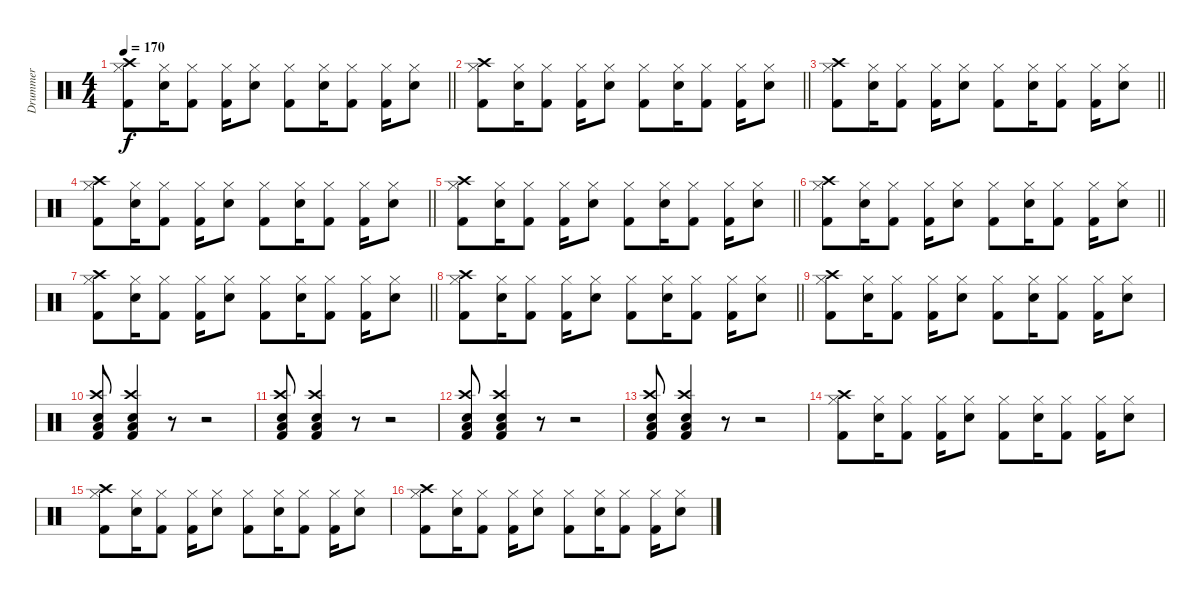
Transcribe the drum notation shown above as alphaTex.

\track ("Drummer" "Drummer") {instrument percussion}
\staff {score}
\articulation defaults
\ts (4 4)
\tempo 170
\clef neutral
\barLineRight lightlight
\ks c
("Kick (hit) 2" "Hi-Hat (closed)" "Crash high (hit)").8{dy f} ("Electric Snare (hit)" "Hi-Hat (closed)").16 ("Kick (hit) 2" "Hi-Hat (closed)").8 ("Kick (hit) 2" "Hi-Hat (closed)").16 ("Electric Snare (hit)" "Hi-Hat (closed)").8 ("Kick (hit) 2" "Hi-Hat (closed)").8 ("Electric Snare (hit)" "Hi-Hat (closed)").16 ("Kick (hit) 2" "Hi-Hat (closed)").8 ("Kick (hit) 2" "Hi-Hat (closed)").16 ("Electric Snare (hit)" "Hi-Hat (closed)").8 |
\barLineRight lightlight
("Kick (hit) 2" "Hi-Hat (closed)" "Crash high (hit)").8 ("Electric Snare (hit)" "Hi-Hat (closed)").16 ("Kick (hit) 2" "Hi-Hat (closed)").8 ("Kick (hit) 2" "Hi-Hat (closed)").16 ("Electric Snare (hit)" "Hi-Hat (closed)").8 ("Kick (hit) 2" "Hi-Hat (closed)").8 ("Electric Snare (hit)" "Hi-Hat (closed)").16 ("Kick (hit) 2" "Hi-Hat (closed)").8 ("Kick (hit) 2" "Hi-Hat (closed)").16 ("Electric Snare (hit)" "Hi-Hat (closed)").8 |
\barLineRight lightlight
("Kick (hit) 2" "Hi-Hat (closed)" "Crash high (hit)").8 ("Electric Snare (hit)" "Hi-Hat (closed)").16 ("Kick (hit) 2" "Hi-Hat (closed)").8 ("Kick (hit) 2" "Hi-Hat (closed)").16 ("Electric Snare (hit)" "Hi-Hat (closed)").8 ("Kick (hit) 2" "Hi-Hat (closed)").8 ("Electric Snare (hit)" "Hi-Hat (closed)").16 ("Kick (hit) 2" "Hi-Hat (closed)").8 ("Kick (hit) 2" "Hi-Hat (closed)").16 ("Electric Snare (hit)" "Hi-Hat (closed)").8 |
\barLineRight lightlight
("Kick (hit) 2" "Hi-Hat (closed)" "Crash high (hit)").8 ("Electric Snare (hit)" "Hi-Hat (closed)").16 ("Kick (hit) 2" "Hi-Hat (closed)").8 ("Kick (hit) 2" "Hi-Hat (closed)").16 ("Electric Snare (hit)" "Hi-Hat (closed)").8 ("Kick (hit) 2" "Hi-Hat (closed)").8 ("Electric Snare (hit)" "Hi-Hat (closed)").16 ("Kick (hit) 2" "Hi-Hat (closed)").8 ("Kick (hit) 2" "Hi-Hat (closed)").16 ("Electric Snare (hit)" "Hi-Hat (closed)").8 |
\barLineRight lightlight
("Kick (hit) 2" "Hi-Hat (closed)" "Crash high (hit)").8 ("Electric Snare (hit)" "Hi-Hat (closed)").16 ("Kick (hit) 2" "Hi-Hat (closed)").8 ("Kick (hit) 2" "Hi-Hat (closed)").16 ("Electric Snare (hit)" "Hi-Hat (closed)").8 ("Kick (hit) 2" "Hi-Hat (closed)").8 ("Electric Snare (hit)" "Hi-Hat (closed)").16 ("Kick (hit) 2" "Hi-Hat (closed)").8 ("Kick (hit) 2" "Hi-Hat (closed)").16 ("Electric Snare (hit)" "Hi-Hat (closed)").8 |
\barLineRight lightlight
("Kick (hit) 2" "Hi-Hat (closed)" "Crash high (hit)").8 ("Electric Snare (hit)" "Hi-Hat (closed)").16 ("Kick (hit) 2" "Hi-Hat (closed)").8 ("Kick (hit) 2" "Hi-Hat (closed)").16 ("Electric Snare (hit)" "Hi-Hat (closed)").8 ("Kick (hit) 2" "Hi-Hat (closed)").8 ("Electric Snare (hit)" "Hi-Hat (closed)").16 ("Kick (hit) 2" "Hi-Hat (closed)").8 ("Kick (hit) 2" "Hi-Hat (closed)").16 ("Electric Snare (hit)" "Hi-Hat (closed)").8 |
\barLineRight lightlight
("Kick (hit) 2" "Hi-Hat (closed)" "Crash high (hit)").8 ("Electric Snare (hit)" "Hi-Hat (closed)").16 ("Kick (hit) 2" "Hi-Hat (closed)").8 ("Kick (hit) 2" "Hi-Hat (closed)").16 ("Electric Snare (hit)" "Hi-Hat (closed)").8 ("Kick (hit) 2" "Hi-Hat (closed)").8 ("Electric Snare (hit)" "Hi-Hat (closed)").16 ("Kick (hit) 2" "Hi-Hat (closed)").8 ("Kick (hit) 2" "Hi-Hat (closed)").16 ("Electric Snare (hit)" "Hi-Hat (closed)").8 |
\barLineRight lightlight
("Kick (hit) 2" "Hi-Hat (closed)" "Crash high (hit)").8 ("Electric Snare (hit)" "Hi-Hat (closed)").16 ("Kick (hit) 2" "Hi-Hat (closed)").8 ("Kick (hit) 2" "Hi-Hat (closed)").16 ("Electric Snare (hit)" "Hi-Hat (closed)").8 ("Kick (hit) 2" "Hi-Hat (closed)").8 ("Electric Snare (hit)" "Hi-Hat (closed)").16 ("Kick (hit) 2" "Hi-Hat (closed)").8 ("Kick (hit) 2" "Hi-Hat (closed)").16 ("Electric Snare (hit)" "Hi-Hat (closed)").8 |
("Kick (hit) 2" "Hi-Hat (closed)" "Crash high (hit)").8 ("Electric Snare (hit)" "Hi-Hat (closed)").16 ("Kick (hit) 2" "Hi-Hat (closed)").8 ("Kick (hit) 2" "Hi-Hat (closed)").16 ("Electric Snare (hit)" "Hi-Hat (closed)").8 ("Kick (hit) 2" "Hi-Hat (closed)").8 ("Electric Snare (hit)" "Hi-Hat (closed)").16 ("Kick (hit) 2" "Hi-Hat (closed)").8 ("Kick (hit) 2" "Hi-Hat (closed)").16 ("Electric Snare (hit)" "Hi-Hat (closed)").8 |
("Kick (hit) 2" "Low Tom (hit)" "Snare (hit) 2" "Crash high (hit)").8 ("Kick (hit) 2" "Low Tom (hit)" "Snare (hit) 2" "Crash high (hit)").4 r.8 r.2 |
("Kick (hit) 2" "Low Tom (hit)" "Snare (hit) 2" "Crash high (hit)").8 ("Kick (hit) 2" "Low Tom (hit)" "Snare (hit) 2" "Crash high (hit)").4 r.8 r.2 |
("Kick (hit) 2" "Low Tom (hit)" "Snare (hit) 2" "Crash high (hit)").8 ("Kick (hit) 2" "Low Tom (hit)" "Snare (hit) 2" "Crash high (hit)").4 r.8 r.2 |
("Kick (hit) 2" "Low Tom (hit)" "Snare (hit) 2" "Crash high (hit)").8 ("Kick (hit) 2" "Low Tom (hit)" "Snare (hit) 2" "Crash high (hit)").4 r.8 r.2 |
("Kick (hit) 2" "Hi-Hat (closed)" "Crash high (hit)").8 ("Electric Snare (hit)" "Hi-Hat (closed)").16 ("Kick (hit) 2" "Hi-Hat (closed)").8 ("Kick (hit) 2" "Hi-Hat (closed)").16 ("Electric Snare (hit)" "Hi-Hat (closed)").8 ("Kick (hit) 2" "Hi-Hat (closed)").8 ("Electric Snare (hit)" "Hi-Hat (closed)").16 ("Kick (hit) 2" "Hi-Hat (closed)").8 ("Kick (hit) 2" "Hi-Hat (closed)").16 ("Electric Snare (hit)" "Hi-Hat (closed)").8 |
("Kick (hit) 2" "Hi-Hat (closed)" "Crash high (hit)").8 ("Electric Snare (hit)" "Hi-Hat (closed)").16 ("Kick (hit) 2" "Hi-Hat (closed)").8 ("Kick (hit) 2" "Hi-Hat (closed)").16 ("Electric Snare (hit)" "Hi-Hat (closed)").8 ("Kick (hit) 2" "Hi-Hat (closed)").8 ("Electric Snare (hit)" "Hi-Hat (closed)").16 ("Kick (hit) 2" "Hi-Hat (closed)").8 ("Kick (hit) 2" "Hi-Hat (closed)").16 ("Electric Snare (hit)" "Hi-Hat (closed)").8 |
("Kick (hit) 2" "Hi-Hat (closed)" "Crash high (hit)").8 ("Electric Snare (hit)" "Hi-Hat (closed)").16 ("Kick (hit) 2" "Hi-Hat (closed)").8 ("Kick (hit) 2" "Hi-Hat (closed)").16 ("Electric Snare (hit)" "Hi-Hat (closed)").8 ("Kick (hit) 2" "Hi-Hat (closed)").8 ("Electric Snare (hit)" "Hi-Hat (closed)").16 ("Kick (hit) 2" "Hi-Hat (closed)").8 ("Kick (hit) 2" "Hi-Hat (closed)").16 ("Electric Snare (hit)" "Hi-Hat (closed)").8
